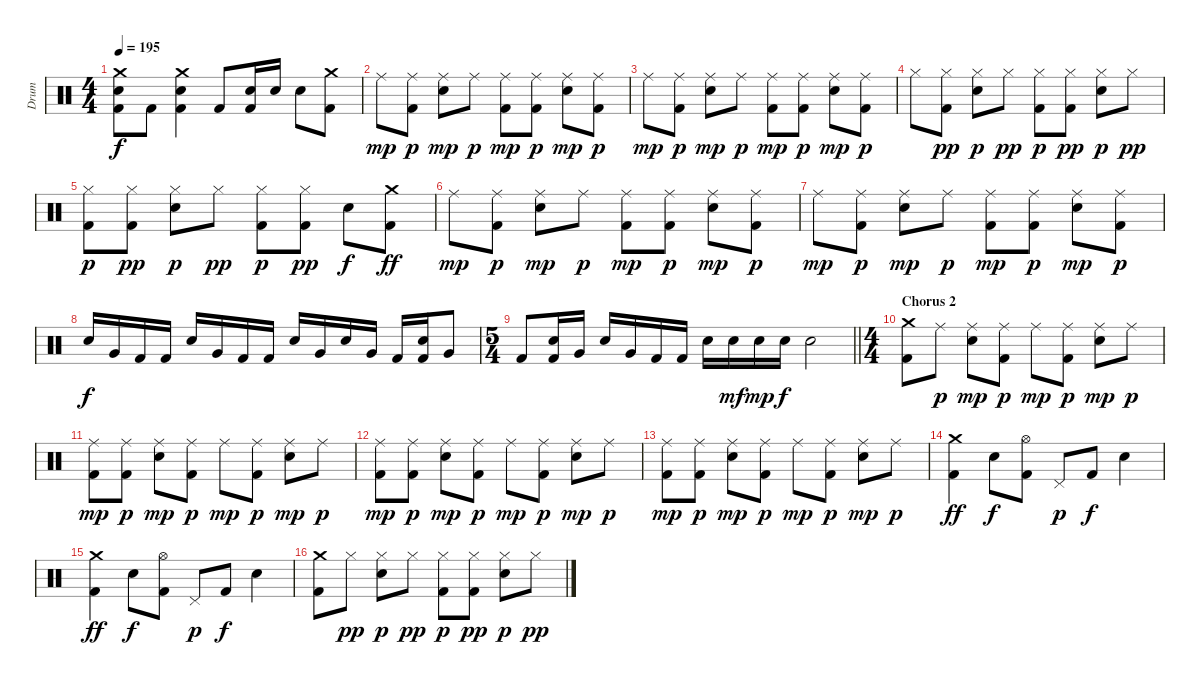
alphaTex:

\track ("Drum" "Drum") {instrument percussion}
\staff {score}
\articulation defaults
\ts (4 4)
\tempo 195
\clef neutral
\ks c
("Crash medium (hit)" "Electric Snare (hit)" "Kick (hit) 2").8{dy f} "Kick (hit) 2".8 ("Crash medium (hit)" "Electric Snare (hit)" "Kick (hit) 2").4 "Kick (hit) 2".8 ("Electric Snare (hit)" "Kick (hit) 2").16 "Electric Snare (hit)".16 "Electric Snare (hit)".8 ("Crash medium (hit)" "Kick (hit) 2").8 |
"Ride (middle)".8{dy mp} ("Ride (middle)" "Kick (hit) 2").8{dy p} ("Ride (middle)" "Electric Snare (hit)").8{dy mp} "Ride (middle)".8{dy p} ("Ride (middle)" "Kick (hit) 2").8{dy mp} ("Ride (middle)" "Kick (hit) 2").8{dy p} ("Ride (middle)" "Electric Snare (hit)").8{dy mp} ("Ride (middle)" "Kick (hit) 2").8{dy p} |
"Ride (middle)".8{dy mp} ("Ride (middle)" "Kick (hit) 2").8{dy p} ("Ride (middle)" "Electric Snare (hit)").8{dy mp} "Ride (middle)".8{dy p} ("Ride (middle)" "Kick (hit) 2").8{dy mp} ("Ride (middle)" "Kick (hit) 2").8{dy p} ("Ride (middle)" "Electric Snare (hit)").8{dy mp} ("Ride (middle)" "Kick (hit) 2").8{dy p} |
"Hi-Hat (closed)".8 ("Hi-Hat (closed)" "Kick (hit) 2").8{dy pp} ("Hi-Hat (closed)" "Electric Snare (hit)").8{dy p} "Hi-Hat (closed)".8{dy pp} ("Hi-Hat (closed)" "Kick (hit) 2").8{dy p} ("Hi-Hat (closed)" "Kick (hit) 2").8{dy pp} ("Hi-Hat (closed)" "Electric Snare (hit)").8{dy p} "Hi-Hat (closed)".8{dy pp} |
("Hi-Hat (closed)" "Kick (hit) 2").8{dy p} ("Hi-Hat (closed)" "Kick (hit) 2").8{dy pp} ("Hi-Hat (closed)" "Electric Snare (hit)").8{dy p} "Hi-Hat (closed)".8{dy pp} ("Hi-Hat (closed)" "Kick (hit) 2").8{dy p} ("Hi-Hat (closed)" "Kick (hit) 2").8{dy pp} "Electric Snare (hit)".8{dy f} ("Crash medium (hit)" "Kick (hit) 2").8{dy ff} |
"Ride (middle)".8{dy mp} ("Ride (middle)" "Kick (hit) 2").8{dy p} ("Ride (middle)" "Electric Snare (hit)").8{dy mp} "Ride (middle)".8{dy p} ("Ride (middle)" "Kick (hit) 2").8{dy mp} ("Ride (middle)" "Kick (hit) 2").8{dy p} ("Ride (middle)" "Electric Snare (hit)").8{dy mp} ("Ride (middle)" "Kick (hit) 2").8{dy p} |
"Ride (middle)".8{dy mp} ("Ride (middle)" "Kick (hit) 2").8{dy p} ("Ride (middle)" "Electric Snare (hit)").8{dy mp} "Ride (middle)".8{dy p} ("Ride (middle)" "Kick (hit) 2").8{dy mp} ("Ride (middle)" "Kick (hit) 2").8{dy p} ("Ride (middle)" "Electric Snare (hit)").8{dy mp} ("Ride (middle)" "Kick (hit) 2").8{dy p} |
"Electric Snare (hit)".16{dy f} "Very Low Tom (hit)".16 "Kick (hit) 2".16 "Kick (hit) 2".16 "Electric Snare (hit)".16 "Very Low Tom (hit)".16 "Kick (hit) 2".16 "Kick (hit) 2".16 "Electric Snare (hit)".16 "Very Low Tom (hit)".16 "Electric Snare (hit)".16 "Very Low Tom (hit)".16 "Kick (hit) 2".16 ("Electric Snare (hit)" "Kick (hit) 2").16 "Very Low Tom (hit)".8 |
\ts (5 4)
\barLineRight lightlight "Kick (hit) 2".8
("Electric Snare (hit)" "Kick (hit) 2").16 "Very Low Tom (hit)".16 "Electric Snare (hit)".16 "Very Low Tom (hit)".16 "Kick (hit) 2".16 "Kick (hit) 2".16 "Electric Snare (hit)".16 "Electric Snare (hit)".16{dy mf} "Electric Snare (hit)".16{dy mp} "Electric Snare (hit)".16{dy f} "Electric Snare (hit)".2 |
\ts (4 4)
\section ("" "Chorus 2")
("Crash medium (hit)" "Kick (hit) 2").8 "Ride (middle)".8{dy p} ("Ride (middle)" "Electric Snare (hit)").8{dy mp} ("Ride (middle)" "Kick (hit) 2").8{dy p} "Ride (middle)".8{dy mp} ("Ride (middle)" "Kick (hit) 2").8{dy p} ("Ride (middle)" "Electric Snare (hit)").8{dy mp} "Ride (middle)".8{dy p} |
("Ride (middle)" "Kick (hit) 2").8{dy mp} ("Ride (middle)" "Kick (hit) 2").8{dy p} ("Ride (middle)" "Electric Snare (hit)").8{dy mp} ("Ride (middle)" "Kick (hit) 2").8{dy p} "Ride (middle)".8{dy mp} ("Ride (middle)" "Kick (hit) 2").8{dy p} ("Ride (middle)" "Electric Snare (hit)").8{dy mp} "Ride (middle)".8{dy p} |
("Ride (middle)" "Kick (hit) 2").8{dy mp} ("Ride (middle)" "Kick (hit) 2").8{dy p} ("Ride (middle)" "Electric Snare (hit)").8{dy mp} ("Ride (middle)" "Kick (hit) 2").8{dy p} "Ride (middle)".8{dy mp} ("Ride (middle)" "Kick (hit) 2").8{dy p} ("Ride (middle)" "Electric Snare (hit)").8{dy mp} "Ride (middle)".8{dy p} |
("Ride (middle)" "Kick (hit) 2").8{dy mp} ("Ride (middle)" "Kick (hit) 2").8{dy p} ("Ride (middle)" "Electric Snare (hit)").8{dy mp} ("Ride (middle)" "Kick (hit) 2").8{dy p} "Ride (middle)".8{dy mp} ("Ride (middle)" "Kick (hit) 2").8{dy p} ("Ride (middle)" "Electric Snare (hit)").8{dy mp} "Ride (middle)".8{dy p} |
("Crash medium (hit)" "Kick (hit) 2").4{dy ff} "Electric Snare (hit)".8{dy f} ("Hi-Hat (open)" "Kick (hit) 2").8 "Pedal Hi-Hat (hit)".8{dy p} "Kick (hit) 2".8{dy f} "Electric Snare (hit)".4 |
("Crash medium (hit)" "Kick (hit) 2").4{dy ff} "Electric Snare (hit)".8{dy f} ("Hi-Hat (open)" "Kick (hit) 2").8 "Pedal Hi-Hat (hit)".8{dy p} "Kick (hit) 2".8{dy f} "Electric Snare (hit)".4 |
("Crash medium (hit)" "Kick (hit) 2").8 "Hi-Hat (closed)".8{dy pp} ("Hi-Hat (closed)" "Electric Snare (hit)").8{dy p} "Hi-Hat (closed)".8{dy pp} ("Hi-Hat (closed)" "Kick (hit) 2").8{dy p} ("Hi-Hat (closed)" "Kick (hit) 2").8{dy pp} ("Hi-Hat (closed)" "Electric Snare (hit)").8{dy p} "Hi-Hat (closed)".8{dy pp}
